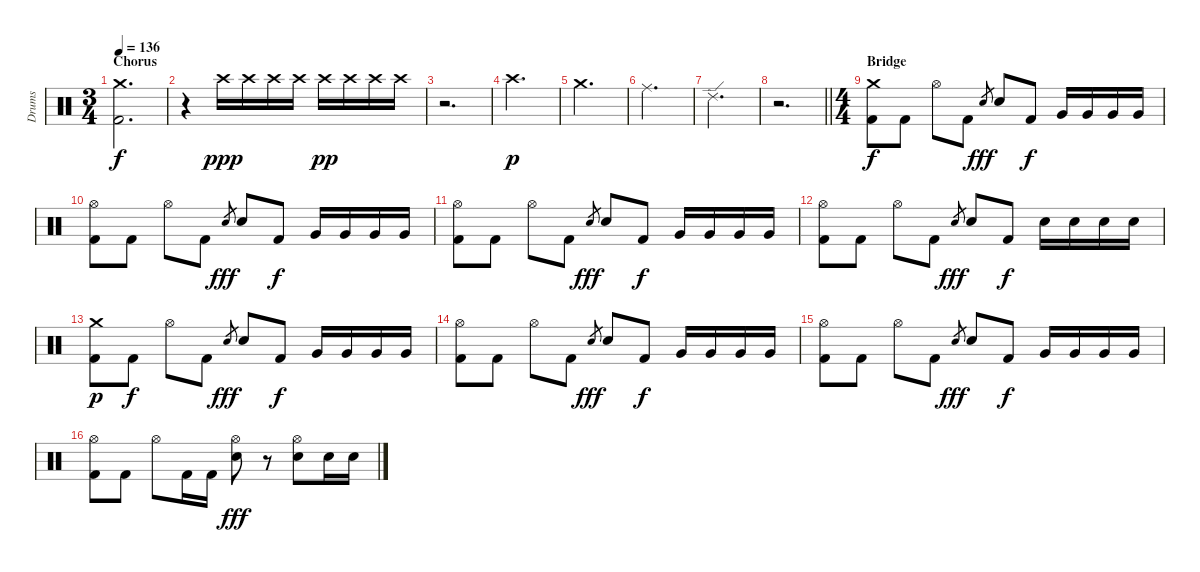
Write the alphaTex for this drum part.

\track ("Drums" "Drums") {instrument percussion}
\staff {score}
\articulation defaults
\ts (3 4)
\section ("" "Chorus")
\tempo 136
\clef neutral
\ks c
("Crash medium (hit)" "Kick (hit) 2").2{d dy f} |
r.4 "Crash high (hit)".16{dy ppp} "Crash high (hit)".16 "Crash high (hit)".16 "Crash high (hit)".16 "Crash high (hit)".16{dy pp} "Crash high (hit)".16 "Crash high (hit)".16 "Crash high (hit)".16 |
r.2{d} |
"Crash high (hit)".2{d dy p} |
"Crash medium (hit)".2{d} |
"Ride (middle)".2{d} |
"Ride (edge) 2".2{d} |
\barLineRight lightlight
r.2{d} |
\ts (4 4)
\section ("" "Bridge")
("Crash medium (hit)" "Kick (hit) 2").8{dy f} "Kick (hit) 2".8 "Hi-Hat (open)".8 "Kick (hit) 2".8 "Electric Snare (hit)".8{gr dy fff} "Electric Snare (hit)".8 "Kick (hit) 2".8{dy f} "Very Low Tom (hit)".16 "Very Low Tom (hit)".16 "Very Low Tom (hit)".16 "Very Low Tom (hit)".16 |
("Hi-Hat (open)" "Kick (hit) 2").8 "Kick (hit) 2".8 "Hi-Hat (open)".8 "Kick (hit) 2".8 "Electric Snare (hit)".8{gr dy fff} "Electric Snare (hit)".8 "Kick (hit) 2".8{dy f} "Very Low Tom (hit)".16 "Very Low Tom (hit)".16 "Very Low Tom (hit)".16 "Very Low Tom (hit)".16 |
("Hi-Hat (open)" "Kick (hit) 2").8 "Kick (hit) 2".8 "Hi-Hat (open)".8 "Kick (hit) 2".8 "Electric Snare (hit)".8{gr dy fff} "Electric Snare (hit)".8 "Kick (hit) 2".8{dy f} "Very Low Tom (hit)".16 "Very Low Tom (hit)".16 "Very Low Tom (hit)".16 "Very Low Tom (hit)".16 |
("Hi-Hat (open)" "Kick (hit) 2").8 "Kick (hit) 2".8 "Hi-Hat (open)".8 "Kick (hit) 2".8 "Electric Snare (hit)".8{gr dy fff} "Electric Snare (hit)".8 "Kick (hit) 2".8{dy f} "Electric Snare (hit)".16 "Electric Snare (hit)".16 "Electric Snare (hit)".16 "Electric Snare (hit)".16 |
("Crash medium (hit)" "Kick (hit) 2").8{dy p} "Kick (hit) 2".8{dy f} "Hi-Hat (open)".8 "Kick (hit) 2".8 "Electric Snare (hit)".8{gr dy fff} "Electric Snare (hit)".8 "Kick (hit) 2".8{dy f} "Very Low Tom (hit)".16 "Very Low Tom (hit)".16 "Very Low Tom (hit)".16 "Very Low Tom (hit)".16 |
("Hi-Hat (open)" "Kick (hit) 2").8 "Kick (hit) 2".8 "Hi-Hat (open)".8 "Kick (hit) 2".8 "Electric Snare (hit)".8{gr dy fff} "Electric Snare (hit)".8 "Kick (hit) 2".8{dy f} "Very Low Tom (hit)".16 "Very Low Tom (hit)".16 "Very Low Tom (hit)".16 "Very Low Tom (hit)".16 |
("Hi-Hat (open)" "Kick (hit) 2").8 "Kick (hit) 2".8 "Hi-Hat (open)".8 "Kick (hit) 2".8 "Electric Snare (hit)".8{gr dy fff} "Electric Snare (hit)".8 "Kick (hit) 2".8{dy f} "Very Low Tom (hit)".16 "Very Low Tom (hit)".16 "Very Low Tom (hit)".16 "Very Low Tom (hit)".16 |
("Hi-Hat (open)" "Kick (hit) 2").8 "Kick (hit) 2".8 "Hi-Hat (open)".8 "Kick (hit) 2".16 "Kick (hit) 2".16 ("Hi-Hat (open)" "Electric Snare (hit)").8{dy fff} r.8 ("Hi-Hat (open)" "Electric Snare (hit)").8 "Electric Snare (hit)".16 "Electric Snare (hit)".16
